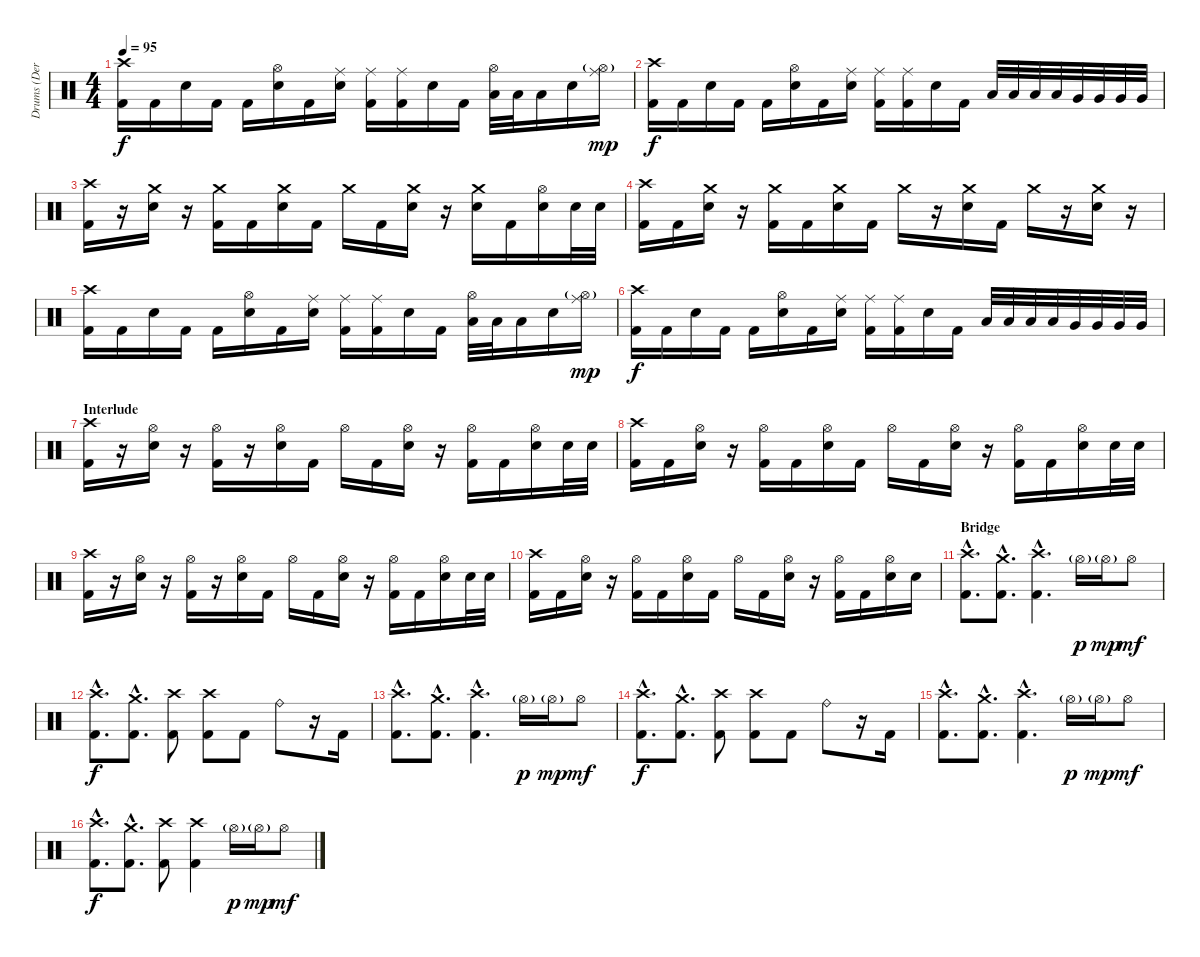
\track ("Drums (Derek Bloom)" "Drums (Der") {instrument percussion}
\staff {score}
\articulation defaults
\ts (4 4)
\tempo 95
\clef neutral
\ks c
("Crash high (hit)" "Kick (hit) 2").16{dy f} "Kick (hit) 2".16 "Electric Snare (hit)".16 "Kick (hit) 2".16 "Kick (hit) 2".16 ("Hi-Hat (open)" "Electric Snare (hit)").16 "Kick (hit) 2".16 ("Ride (middle)" "Electric Snare (hit)").16 ("Ride (middle)" "Kick (hit) 2").16 ("Ride (middle)" "Kick (hit) 2").16 "Electric Snare (hit)".16 "Kick (hit) 2".16 ("Hi-Hat (open)" "Low Tom (hit)").32 "Low Tom (hit)".32 "Low Tom (hit)".16 "Electric Snare (hit)".16 ("Ride (middle)" "Hi-Hat (open)"{g}).16{dy mp} |
("Crash high (hit)" "Kick (hit) 2").16{dy f} "Kick (hit) 2".16 "Electric Snare (hit)".16 "Kick (hit) 2".16 "Kick (hit) 2".16 ("Hi-Hat (open)" "Electric Snare (hit)").16 "Kick (hit) 2".16 ("Ride (middle)" "Electric Snare (hit)").16 ("Ride (middle)" "Kick (hit) 2").16 ("Ride (middle)" "Kick (hit) 2").16 "Electric Snare (hit)".16 "Kick (hit) 2".16 "Low Tom (hit)".32 "Low Tom (hit)".32 "Low Tom (hit)".32 "Low Tom (hit)".32 "Very Low Tom (hit)".32 "Very Low Tom (hit)".32 "Very Low Tom (hit)".32 "Very Low Tom (hit)".32 |
("Crash high (hit)" "Kick (hit) 2").16 r.16 ("Crash medium (hit)" "Electric Snare (hit)").16 r.16 ("Crash medium (hit)" "Kick (hit) 2").16 "Kick (hit) 2".16 ("Crash medium (hit)" "Electric Snare (hit)").16 "Kick (hit) 2".16 "Crash medium (hit)".16 "Kick (hit) 2".16 ("Crash medium (hit)" "Electric Snare (hit)").16 r.16 ("Crash medium (hit)" "Electric Snare (hit)").16 "Kick (hit) 2".16 ("Hi-Hat (open)" "Electric Snare (hit)").16 "Electric Snare (hit)".32 "Electric Snare (hit)".32 |
("Crash high (hit)" "Kick (hit) 2").16 "Kick (hit) 2".16 ("Crash medium (hit)" "Electric Snare (hit)").16 r.16 ("Crash medium (hit)" "Kick (hit) 2").16 "Kick (hit) 2".16 ("Crash medium (hit)" "Electric Snare (hit)").16 "Kick (hit) 2".16 "Crash medium (hit)".16 r.16 ("Crash medium (hit)" "Electric Snare (hit)").16 "Kick (hit) 2".16 "Crash medium (hit)".16 r.16 ("Crash medium (hit)" "Electric Snare (hit)").16 r.16 |
("Crash high (hit)" "Kick (hit) 2").16 "Kick (hit) 2".16 "Electric Snare (hit)".16 "Kick (hit) 2".16 "Kick (hit) 2".16 ("Hi-Hat (open)" "Electric Snare (hit)").16 "Kick (hit) 2".16 ("Ride (middle)" "Electric Snare (hit)").16 ("Ride (middle)" "Kick (hit) 2").16 ("Ride (middle)" "Kick (hit) 2").16 "Electric Snare (hit)".16 "Kick (hit) 2".16 ("Hi-Hat (open)" "Low Tom (hit)").32 "Low Tom (hit)".32 "Low Tom (hit)".16 "Electric Snare (hit)".16 ("Ride (middle)" "Hi-Hat (open)"{g}).16{dy mp} |
("Crash high (hit)" "Kick (hit) 2").16{dy f} "Kick (hit) 2".16 "Electric Snare (hit)".16 "Kick (hit) 2".16 "Kick (hit) 2".16 ("Hi-Hat (open)" "Electric Snare (hit)").16 "Kick (hit) 2".16 ("Ride (middle)" "Electric Snare (hit)").16 ("Ride (middle)" "Kick (hit) 2").16 ("Ride (middle)" "Kick (hit) 2").16 "Electric Snare (hit)".16 "Kick (hit) 2".16 "Low Tom (hit)".32 "Low Tom (hit)".32 "Low Tom (hit)".32 "Low Tom (hit)".32 "Very Low Tom (hit)".32 "Very Low Tom (hit)".32 "Very Low Tom (hit)".32 "Very Low Tom (hit)".32 |
\section ("" "Interlude")
("Crash high (hit)" "Kick (hit) 2").16 r.16 ("Hi-Hat (open)" "Electric Snare (hit)").16 r.16 ("Hi-Hat (open)" "Kick (hit) 2").16 r.16 ("Hi-Hat (open)" "Electric Snare (hit)").16 "Kick (hit) 2".16 "Hi-Hat (open)".16 "Kick (hit) 2".16 ("Hi-Hat (open)" "Electric Snare (hit)").16 r.16 ("Hi-Hat (open)" "Kick (hit) 2").16 "Kick (hit) 2".16 ("Hi-Hat (open)" "Electric Snare (hit)").16 "Electric Snare (hit)".32 "Electric Snare (hit)".32 |
("Crash high (hit)" "Kick (hit) 2").16 "Kick (hit) 2".16 ("Hi-Hat (open)" "Electric Snare (hit)").16 r.16 ("Hi-Hat (open)" "Kick (hit) 2").16 "Kick (hit) 2".16 ("Hi-Hat (open)" "Electric Snare (hit)").16 "Kick (hit) 2".16 "Hi-Hat (open)".16 "Kick (hit) 2".16 ("Hi-Hat (open)" "Electric Snare (hit)").16 r.16 ("Hi-Hat (open)" "Kick (hit) 2").16 "Kick (hit) 2".16 ("Hi-Hat (open)" "Electric Snare (hit)").16 "Electric Snare (hit)".32 "Electric Snare (hit)".32 |
("Crash high (hit)" "Kick (hit) 2").16 r.16 ("Hi-Hat (open)" "Electric Snare (hit)").16 r.16 ("Hi-Hat (open)" "Kick (hit) 2").16 r.16 ("Hi-Hat (open)" "Electric Snare (hit)").16 "Kick (hit) 2".16 "Hi-Hat (open)".16 "Kick (hit) 2".16 ("Hi-Hat (open)" "Electric Snare (hit)").16 r.16 ("Hi-Hat (open)" "Kick (hit) 2").16 "Kick (hit) 2".16 ("Hi-Hat (open)" "Electric Snare (hit)").16 "Electric Snare (hit)".32 "Electric Snare (hit)".32 |
("Crash high (hit)" "Kick (hit) 2").16 "Kick (hit) 2".16 ("Hi-Hat (open)" "Electric Snare (hit)").16 r.16 ("Hi-Hat (open)" "Kick (hit) 2").16 "Kick (hit) 2".16 ("Hi-Hat (open)" "Electric Snare (hit)").16 "Kick (hit) 2".16 "Hi-Hat (open)".16 "Kick (hit) 2".16 ("Hi-Hat (open)" "Electric Snare (hit)").16 r.16 ("Hi-Hat (open)" "Kick (hit) 2").16 "Kick (hit) 2".16 ("Hi-Hat (open)" "Electric Snare (hit)").16 "Electric Snare (hit)".16 |
\section ("" "Bridge")
("Crash high (hit)"{hac} "Kick (hit) 2"{hac}).8{d} ("Crash medium (hit)"{hac} "Kick (hit) 2"{hac}).8{d} ("Crash high (hit)"{hac} "Kick (hit) 2"{hac}).4{d} "Hi-Hat (open)"{g}.16{dy p} "Hi-Hat (open)"{g}.16{dy mp} "Hi-Hat (open)".8{dy mf} |
("Crash high (hit)"{hac} "Kick (hit) 2"{hac}).8{d dy f} ("Crash medium (hit)"{hac} "Kick (hit) 2"{hac}).8{d} ("Crash high (hit)" "Kick (hit) 2").8 ("Crash high (hit)" "Kick (hit) 2").8 "Kick (hit) 2".8 "Ride (bell)".8 r.16 "Kick (hit) 2".16 |
("Crash high (hit)"{hac} "Kick (hit) 2"{hac}).8{d} ("Crash medium (hit)"{hac} "Kick (hit) 2"{hac}).8{d} ("Crash high (hit)"{hac} "Kick (hit) 2"{hac}).4{d} "Hi-Hat (open)"{g}.16{dy p} "Hi-Hat (open)"{g}.16{dy mp} "Hi-Hat (open)".8{dy mf} |
("Crash high (hit)"{hac} "Kick (hit) 2"{hac}).8{d dy f} ("Crash medium (hit)"{hac} "Kick (hit) 2"{hac}).8{d} ("Crash high (hit)" "Kick (hit) 2").8 ("Crash high (hit)" "Kick (hit) 2").8 "Kick (hit) 2".8 "Ride (bell)".8 r.16 "Kick (hit) 2".16 |
("Crash high (hit)"{hac} "Kick (hit) 2"{hac}).8{d} ("Crash medium (hit)"{hac} "Kick (hit) 2"{hac}).8{d} ("Crash high (hit)"{hac} "Kick (hit) 2"{hac}).4{d} "Hi-Hat (open)"{g}.16{dy p} "Hi-Hat (open)"{g}.16{dy mp} "Hi-Hat (open)".8{dy mf} |
("Crash high (hit)"{hac} "Kick (hit) 2"{hac}).8{d dy f} ("Crash medium (hit)"{hac} "Kick (hit) 2"{hac}).8{d} ("Crash high (hit)" "Kick (hit) 2").8 ("Crash high (hit)" "Kick (hit) 2").4 "Hi-Hat (open)"{g}.16{dy p} "Hi-Hat (open)"{g}.16{dy mp} "Hi-Hat (open)".8{dy mf}
